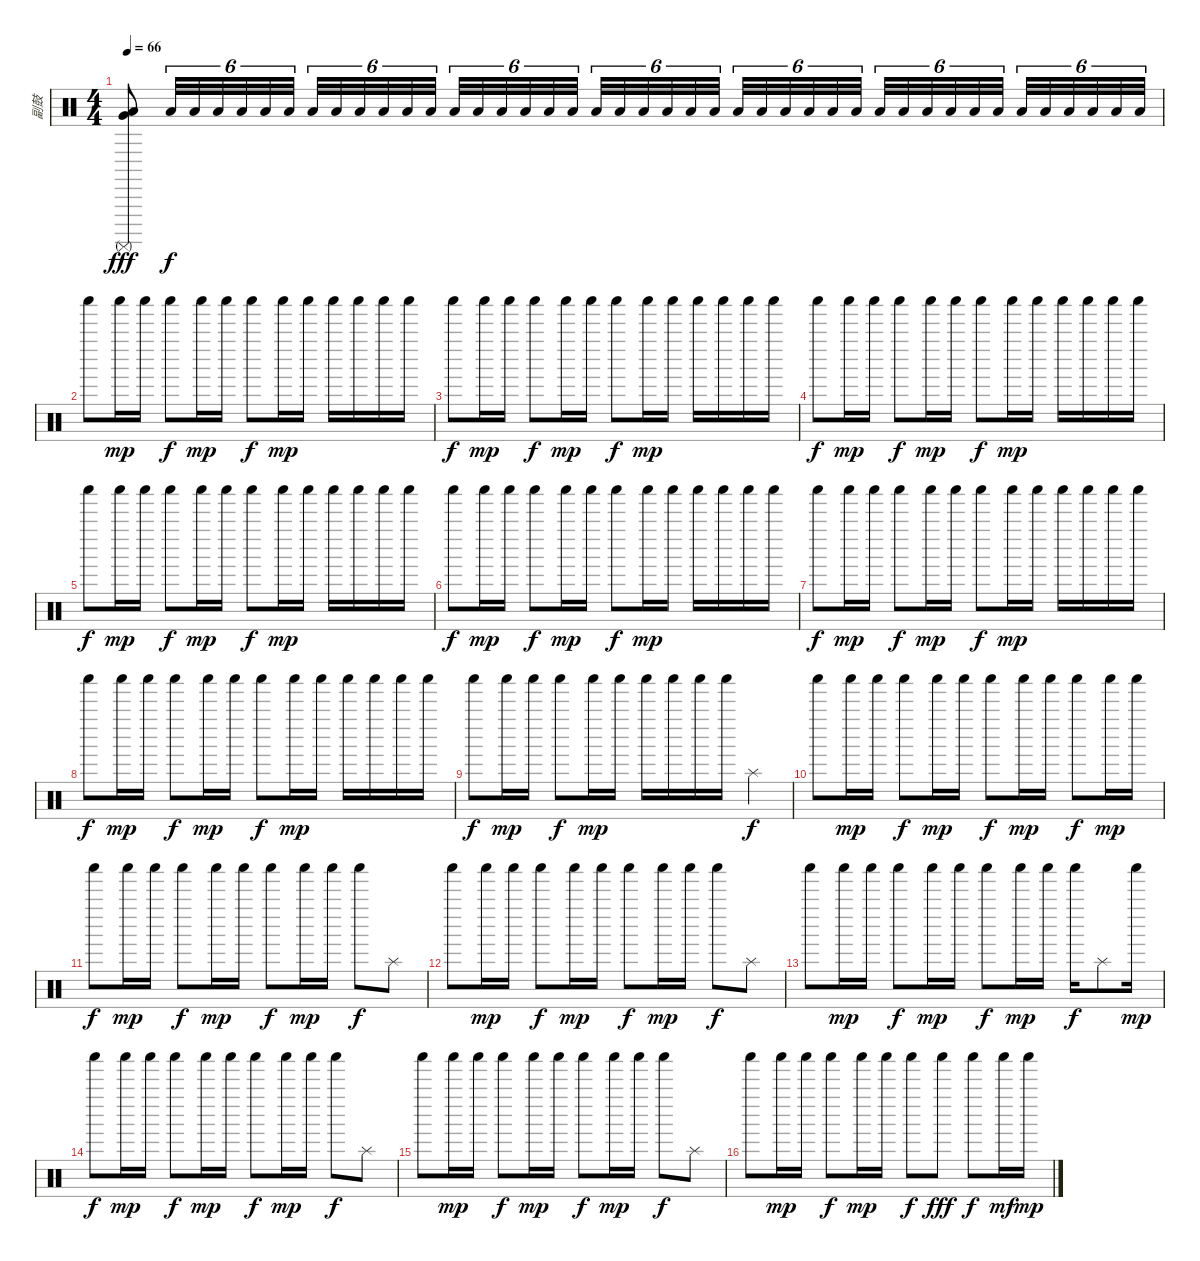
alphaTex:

\track ("副鼓" "副鼓") {instrument percussion}
\staff {score}
\articulation defaults
\ts (4 4)
\tempo 66
\clef neutral
\ks c
("Low Floor Tom (hit)" "Very Low Tom (hit)" "Surdo (mute)").8{dy fff balance 12} "Low Floor Tom (hit)".32{tu (6 4) dy f volume 1} "Low Floor Tom (hit)".32{tu (6 4)} "Low Floor Tom (hit)".32{tu (6 4)} "Low Floor Tom (hit)".32{tu (6 4)} "Low Floor Tom (hit)".32{tu (6 4)} "Low Floor Tom (hit)".32{tu (6 4)} "Low Floor Tom (hit)".32{tu (6 4) volume 2} "Low Floor Tom (hit)".32{tu (6 4)} "Low Floor Tom (hit)".32{tu (6 4)} "Low Floor Tom (hit)".32{tu (6 4)} "Low Floor Tom (hit)".32{tu (6 4)} "Low Floor Tom (hit)".32{tu (6 4)} "Low Floor Tom (hit)".32{tu (6 4)} "Low Floor Tom (hit)".32{tu (6 4)} "Low Floor Tom (hit)".32{tu (6 4) volume 3} "Low Floor Tom (hit)".32{tu (6 4)} "Low Floor Tom (hit)".32{tu (6 4) volume 5} "Low Floor Tom (hit)".32{tu (6 4)} "Low Floor Tom (hit)".32{tu (6 4) volume 9 balance 12} "Low Floor Tom (hit)".32{tu (6 4)} "Low Floor Tom (hit)".32{tu (6 4)} "Low Floor Tom (hit)".32{tu (6 4)} "Low Floor Tom (hit)".32{tu (6 4)} "Low Floor Tom (hit)".32{tu (6 4)} "Low Floor Tom (hit)".32{tu (6 4)} "Low Floor Tom (hit)".32{tu (6 4)} "Low Floor Tom (hit)".32{tu (6 4)} "Low Floor Tom (hit)".32{tu (6 4)} "Low Floor Tom (hit)".32{tu (6 4)} "Low Floor Tom (hit)".32{tu (6 4)} "Low Floor Tom (hit)".32{tu (6 4) volume 10} "Low Floor Tom (hit)".32{tu (6 4)} "Low Floor Tom (hit)".32{tu (6 4)} "Low Floor Tom (hit)".32{tu (6 4)} "Low Floor Tom (hit)".32{tu (6 4)} "Low Floor Tom (hit)".32{tu (6 4)} "Low Floor Tom (hit)".32{tu (6 4)} "Low Floor Tom (hit)".32{tu (6 4)} "Low Floor Tom (hit)".32{tu (6 4)} "Low Floor Tom (hit)".32{tu (6 4)} "Low Floor Tom (hit)".32{tu (6 4)} "Low Floor Tom (hit)".32{tu (6 4)} |
"Shaker (hit)".8{volume 6} "Shaker (hit)".16{dy mp} "Shaker (hit)".16 "Shaker (hit)".8{dy f} "Shaker (hit)".16{dy mp} "Shaker (hit)".16 "Shaker (hit)".8{dy f} "Shaker (hit)".16{dy mp} "Shaker (hit)".16 "Shaker (hit)".16 "Shaker (hit)".16 "Shaker (hit)".16 "Shaker (hit)".16 |
"Shaker (hit)".8{dy f} "Shaker (hit)".16{dy mp} "Shaker (hit)".16 "Shaker (hit)".8{dy f} "Shaker (hit)".16{dy mp} "Shaker (hit)".16 "Shaker (hit)".8{dy f} "Shaker (hit)".16{dy mp} "Shaker (hit)".16 "Shaker (hit)".16 "Shaker (hit)".16 "Shaker (hit)".16 "Shaker (hit)".16 |
"Shaker (hit)".8{dy f} "Shaker (hit)".16{dy mp} "Shaker (hit)".16 "Shaker (hit)".8{dy f} "Shaker (hit)".16{dy mp} "Shaker (hit)".16 "Shaker (hit)".8{dy f} "Shaker (hit)".16{dy mp} "Shaker (hit)".16 "Shaker (hit)".16 "Shaker (hit)".16 "Shaker (hit)".16 "Shaker (hit)".16 |
"Shaker (hit)".8{dy f} "Shaker (hit)".16{dy mp} "Shaker (hit)".16 "Shaker (hit)".8{dy f} "Shaker (hit)".16{dy mp} "Shaker (hit)".16 "Shaker (hit)".8{dy f} "Shaker (hit)".16{dy mp} "Shaker (hit)".16 "Shaker (hit)".16 "Shaker (hit)".16 "Shaker (hit)".16 "Shaker (hit)".16 |
"Shaker (hit)".8{dy f} "Shaker (hit)".16{dy mp} "Shaker (hit)".16 "Shaker (hit)".8{dy f} "Shaker (hit)".16{dy mp} "Shaker (hit)".16 "Shaker (hit)".8{dy f} "Shaker (hit)".16{dy mp} "Shaker (hit)".16 "Shaker (hit)".16 "Shaker (hit)".16 "Shaker (hit)".16 "Shaker (hit)".16 |
"Shaker (hit)".8{dy f} "Shaker (hit)".16{dy mp} "Shaker (hit)".16 "Shaker (hit)".8{dy f} "Shaker (hit)".16{dy mp} "Shaker (hit)".16 "Shaker (hit)".8{dy f} "Shaker (hit)".16{dy mp} "Shaker (hit)".16 "Shaker (hit)".16 "Shaker (hit)".16 "Shaker (hit)".16 "Shaker (hit)".16 |
"Shaker (hit)".8{dy f} "Shaker (hit)".16{dy mp} "Shaker (hit)".16 "Shaker (hit)".8{dy f} "Shaker (hit)".16{dy mp} "Shaker (hit)".16 "Shaker (hit)".8{dy f} "Shaker (hit)".16{dy mp} "Shaker (hit)".16 "Shaker (hit)".16 "Shaker (hit)".16 "Shaker (hit)".16 "Shaker (hit)".16 |
"Shaker (hit)".8{dy f} "Shaker (hit)".16{dy mp} "Shaker (hit)".16 "Shaker (hit)".8{dy f} "Shaker (hit)".16{dy mp} "Shaker (hit)".16 "Shaker (hit)".16 "Shaker (hit)".16 "Shaker (hit)".16 "Shaker (hit)".16 "Splash (hit)".4{dy f} |
"Shaker (hit)".8 "Shaker (hit)".16{dy mp} "Shaker (hit)".16 "Shaker (hit)".8{dy f} "Shaker (hit)".16{dy mp} "Shaker (hit)".16 "Shaker (hit)".8{dy f} "Shaker (hit)".16{dy mp} "Shaker (hit)".16 "Shaker (hit)".8{dy f} "Shaker (hit)".16{dy mp} "Shaker (hit)".16 |
"Shaker (hit)".8{dy f} "Shaker (hit)".16{dy mp} "Shaker (hit)".16 "Shaker (hit)".8{dy f} "Shaker (hit)".16{dy mp} "Shaker (hit)".16 "Shaker (hit)".8{dy f} "Shaker (hit)".16{dy mp} "Shaker (hit)".16 "Shaker (hit)".8{dy f} "Splash (hit)".8 |
"Shaker (hit)".8 "Shaker (hit)".16{dy mp} "Shaker (hit)".16 "Shaker (hit)".8{dy f} "Shaker (hit)".16{dy mp} "Shaker (hit)".16 "Shaker (hit)".8{dy f} "Shaker (hit)".16{dy mp} "Shaker (hit)".16 "Shaker (hit)".8{dy f} "Splash (hit)".8 |
"Shaker (hit)".8 "Shaker (hit)".16{dy mp} "Shaker (hit)".16 "Shaker (hit)".8{dy f} "Shaker (hit)".16{dy mp} "Shaker (hit)".16 "Shaker (hit)".8{dy f} "Shaker (hit)".16{dy mp} "Shaker (hit)".16 "Shaker (hit)".16{dy f} "Splash (hit)".8 "Shaker (hit)".16{dy mp} |
"Shaker (hit)".8{dy f} "Shaker (hit)".16{dy mp} "Shaker (hit)".16 "Shaker (hit)".8{dy f} "Shaker (hit)".16{dy mp} "Shaker (hit)".16 "Shaker (hit)".8{dy f} "Shaker (hit)".16{dy mp} "Shaker (hit)".16 "Shaker (hit)".8{dy f} "Splash (hit)".8 |
"Shaker (hit)".8 "Shaker (hit)".16{dy mp} "Shaker (hit)".16 "Shaker (hit)".8{dy f} "Shaker (hit)".16{dy mp} "Shaker (hit)".16 "Shaker (hit)".8{dy f} "Shaker (hit)".16{dy mp} "Shaker (hit)".16 "Shaker (hit)".8{dy f} "Splash (hit)".8 |
"Shaker (hit)".8 "Shaker (hit)".16{dy mp} "Shaker (hit)".16 "Shaker (hit)".8{dy f} "Shaker (hit)".16{dy mp} "Shaker (hit)".16 "Shaker (hit)".8{dy f} "Shaker (hit)".8{dy fff} "Shaker (hit)".8{dy f} "Shaker (hit)".16{dy mf} "Shaker (hit)".16{dy mp}
